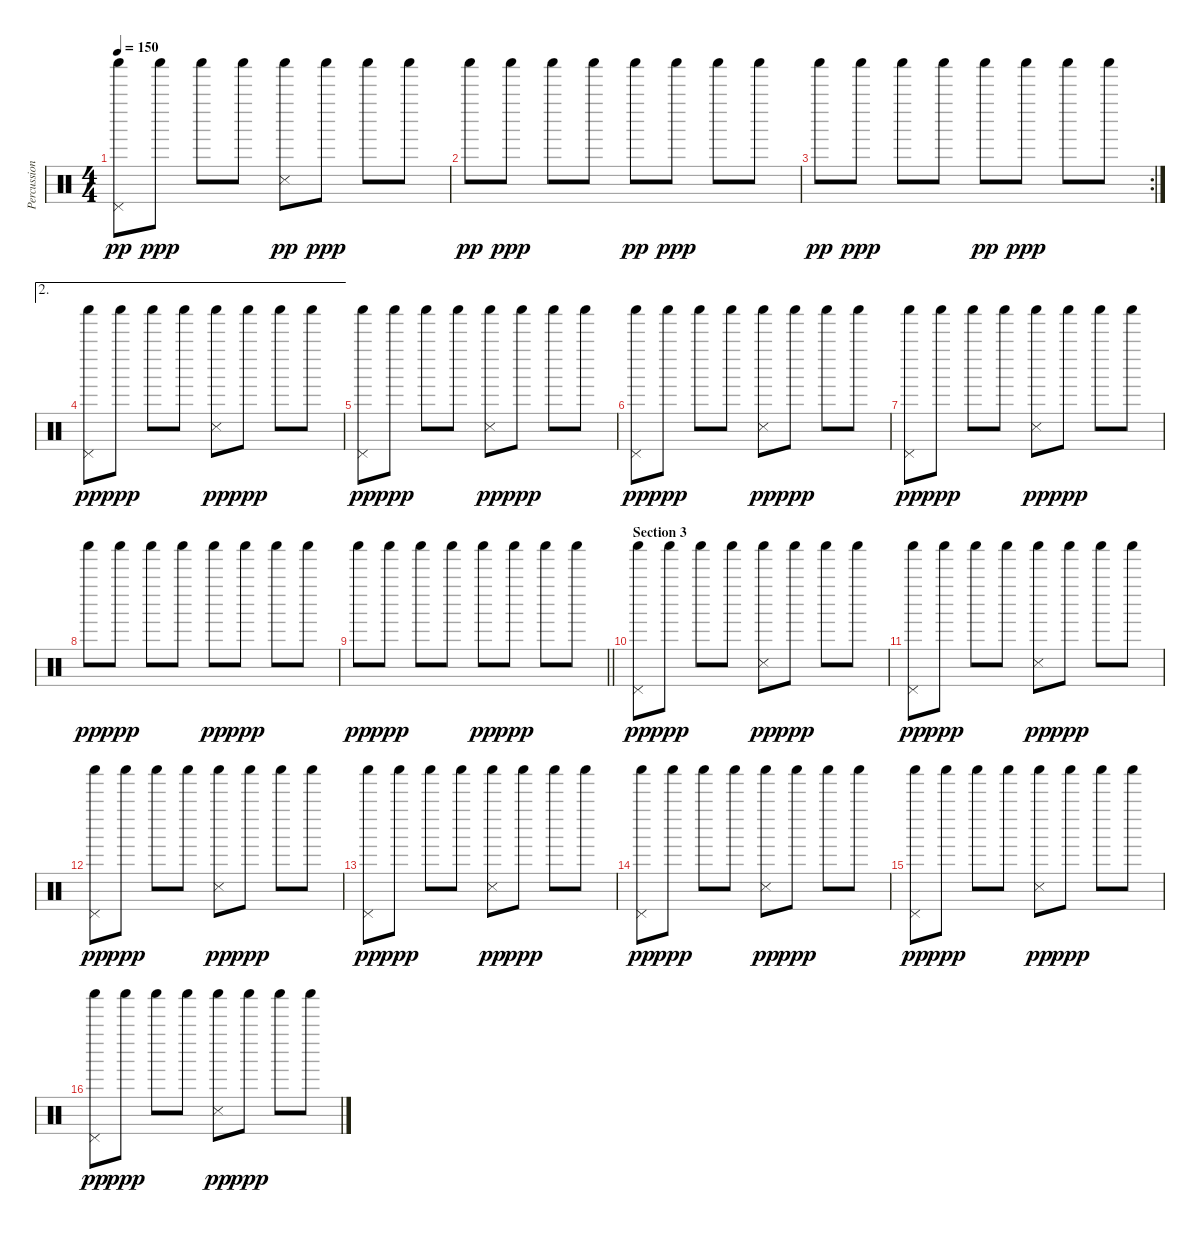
\track ("Percussion" "Percussion") {instrument percussion}
\staff {score}
\articulation defaults
\ts (4 4)
\tempo 150
\clef neutral
\ks c
("Pedal Hi-Hat (hit)" "Shaker (hit)").8{dy pp} "Shaker (hit)".8{dy ppp} "Shaker (hit)".8 "Shaker (hit)".8 ("Snare (side stick) 3" "Shaker (hit)").8{dy pp} "Shaker (hit)".8{dy ppp} "Shaker (hit)".8 "Shaker (hit)".8 |
"Shaker (hit)".8{dy pp} "Shaker (hit)".8{dy ppp} "Shaker (hit)".8 "Shaker (hit)".8 "Shaker (hit)".8{dy pp} "Shaker (hit)".8{dy ppp} "Shaker (hit)".8 "Shaker (hit)".8 |
\rc 2 "Shaker (hit)".8{dy pp} "Shaker (hit)".8{dy ppp} "Shaker (hit)".8 "Shaker (hit)".8 "Shaker (hit)".8{dy pp} "Shaker (hit)".8{dy ppp} "Shaker (hit)".8 "Shaker (hit)".8
|
\ae 2
("Pedal Hi-Hat (hit)" "Shaker (hit)").8{dy pp} "Shaker (hit)".8{dy ppp} "Shaker (hit)".8 "Shaker (hit)".8 ("Snare (side stick) 3" "Shaker (hit)").8{dy pp} "Shaker (hit)".8{dy ppp} "Shaker (hit)".8 "Shaker (hit)".8 |
("Pedal Hi-Hat (hit)" "Shaker (hit)").8{dy pp} "Shaker (hit)".8{dy ppp} "Shaker (hit)".8 "Shaker (hit)".8 ("Snare (side stick) 3" "Shaker (hit)").8{dy pp} "Shaker (hit)".8{dy ppp} "Shaker (hit)".8 "Shaker (hit)".8 |
("Pedal Hi-Hat (hit)" "Shaker (hit)").8{dy pp} "Shaker (hit)".8{dy ppp} "Shaker (hit)".8 "Shaker (hit)".8 ("Snare (side stick) 3" "Shaker (hit)").8{dy pp} "Shaker (hit)".8{dy ppp} "Shaker (hit)".8 "Shaker (hit)".8 |
("Pedal Hi-Hat (hit)" "Shaker (hit)").8{dy pp} "Shaker (hit)".8{dy ppp} "Shaker (hit)".8 "Shaker (hit)".8 ("Snare (side stick) 3" "Shaker (hit)").8{dy pp} "Shaker (hit)".8{dy ppp} "Shaker (hit)".8 "Shaker (hit)".8 |
"Shaker (hit)".8{dy pp} "Shaker (hit)".8{dy ppp} "Shaker (hit)".8 "Shaker (hit)".8 "Shaker (hit)".8{dy pp} "Shaker (hit)".8{dy ppp} "Shaker (hit)".8 "Shaker (hit)".8 |
\barLineRight lightlight "Shaker (hit)".8{dy pp} "Shaker (hit)".8{dy ppp} "Shaker (hit)".8 "Shaker (hit)".8 "Shaker (hit)".8{dy pp} "Shaker (hit)".8{dy ppp} "Shaker (hit)".8 "Shaker (hit)".8
|
\section ("" "Section 3")
("Pedal Hi-Hat (hit)" "Shaker (hit)").8{dy pp} "Shaker (hit)".8{dy ppp} "Shaker (hit)".8 "Shaker (hit)".8 ("Snare (side stick) 3" "Shaker (hit)").8{dy pp} "Shaker (hit)".8{dy ppp} "Shaker (hit)".8 "Shaker (hit)".8 |
("Pedal Hi-Hat (hit)" "Shaker (hit)").8{dy pp} "Shaker (hit)".8{dy ppp} "Shaker (hit)".8 "Shaker (hit)".8 ("Snare (side stick) 3" "Shaker (hit)").8{dy pp} "Shaker (hit)".8{dy ppp} "Shaker (hit)".8 "Shaker (hit)".8 |
("Pedal Hi-Hat (hit)" "Shaker (hit)").8{dy pp} "Shaker (hit)".8{dy ppp} "Shaker (hit)".8 "Shaker (hit)".8 ("Snare (side stick) 3" "Shaker (hit)").8{dy pp} "Shaker (hit)".8{dy ppp} "Shaker (hit)".8 "Shaker (hit)".8 |
("Pedal Hi-Hat (hit)" "Shaker (hit)").8{dy pp} "Shaker (hit)".8{dy ppp} "Shaker (hit)".8 "Shaker (hit)".8 ("Snare (side stick) 3" "Shaker (hit)").8{dy pp} "Shaker (hit)".8{dy ppp} "Shaker (hit)".8 "Shaker (hit)".8 |
("Pedal Hi-Hat (hit)" "Shaker (hit)").8{dy pp} "Shaker (hit)".8{dy ppp} "Shaker (hit)".8 "Shaker (hit)".8 ("Snare (side stick) 3" "Shaker (hit)").8{dy pp} "Shaker (hit)".8{dy ppp} "Shaker (hit)".8 "Shaker (hit)".8 |
("Pedal Hi-Hat (hit)" "Shaker (hit)").8{dy pp} "Shaker (hit)".8{dy ppp} "Shaker (hit)".8 "Shaker (hit)".8 ("Snare (side stick) 3" "Shaker (hit)").8{dy pp} "Shaker (hit)".8{dy ppp} "Shaker (hit)".8 "Shaker (hit)".8 |
("Pedal Hi-Hat (hit)" "Shaker (hit)").8{dy pp} "Shaker (hit)".8{dy ppp} "Shaker (hit)".8 "Shaker (hit)".8 ("Snare (side stick) 3" "Shaker (hit)").8{dy pp} "Shaker (hit)".8{dy ppp} "Shaker (hit)".8 "Shaker (hit)".8
